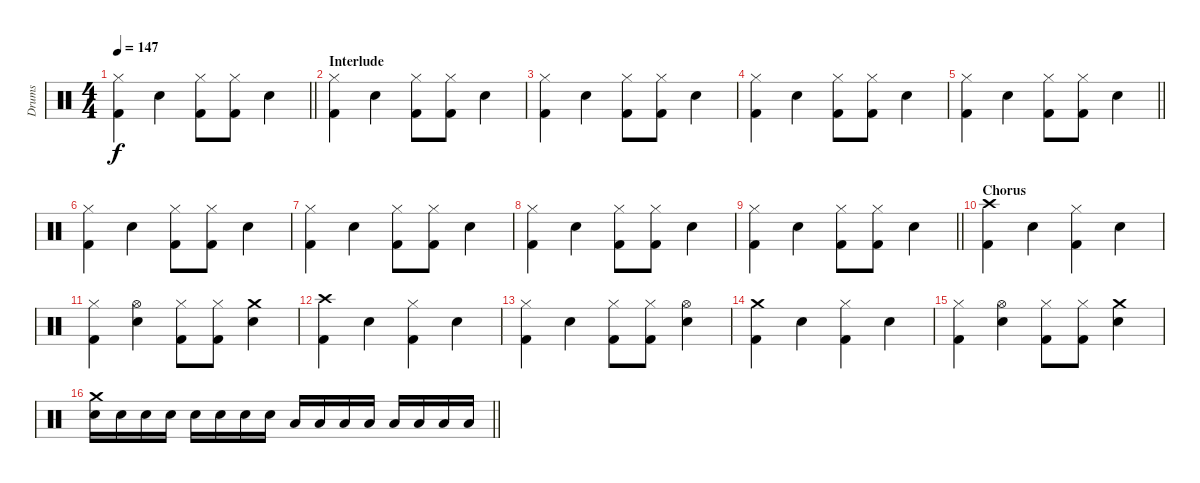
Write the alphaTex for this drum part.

\track ("Drums" "Drums") {instrument percussion}
\staff {score}
\articulation defaults
\ts (4 4)
\tempo 147
\clef neutral
\barLineRight lightlight
\ks c
("Hi-Hat (closed)" "Kick (hit) 2").4{dy f} "Electric Snare (hit)".4 ("Hi-Hat (closed)" "Kick (hit) 2").8 ("Hi-Hat (closed)" "Kick (hit) 2").8 "Electric Snare (hit)".4 |
\section ("" "Interlude")
("Hi-Hat (closed)" "Kick (hit) 2").4 "Electric Snare (hit)".4 ("Hi-Hat (closed)" "Kick (hit) 2").8 ("Hi-Hat (closed)" "Kick (hit) 2").8 "Electric Snare (hit)".4 |
("Hi-Hat (closed)" "Kick (hit) 2").4 "Electric Snare (hit)".4 ("Hi-Hat (closed)" "Kick (hit) 2").8 ("Hi-Hat (closed)" "Kick (hit) 2").8 "Electric Snare (hit)".4 |
("Hi-Hat (closed)" "Kick (hit) 2").4 "Electric Snare (hit)".4 ("Hi-Hat (closed)" "Kick (hit) 2").8 ("Hi-Hat (closed)" "Kick (hit) 2").8 "Electric Snare (hit)".4 |
\barLineRight lightlight
("Hi-Hat (closed)" "Kick (hit) 2").4 "Electric Snare (hit)".4 ("Hi-Hat (closed)" "Kick (hit) 2").8 ("Hi-Hat (closed)" "Kick (hit) 2").8 "Electric Snare (hit)".4 |
("Hi-Hat (closed)" "Kick (hit) 2").4 "Electric Snare (hit)".4 ("Hi-Hat (closed)" "Kick (hit) 2").8 ("Hi-Hat (closed)" "Kick (hit) 2").8 "Electric Snare (hit)".4 |
("Hi-Hat (closed)" "Kick (hit) 2").4 "Electric Snare (hit)".4 ("Hi-Hat (closed)" "Kick (hit) 2").8 ("Hi-Hat (closed)" "Kick (hit) 2").8 "Electric Snare (hit)".4 |
("Hi-Hat (closed)" "Kick (hit) 2").4 "Electric Snare (hit)".4 ("Hi-Hat (closed)" "Kick (hit) 2").8 ("Hi-Hat (closed)" "Kick (hit) 2").8 "Electric Snare (hit)".4 |
\barLineRight lightlight
("Hi-Hat (closed)" "Kick (hit) 2").4 "Electric Snare (hit)".4 ("Hi-Hat (closed)" "Kick (hit) 2").8 ("Hi-Hat (closed)" "Kick (hit) 2").8 "Electric Snare (hit)".4 |
\section ("" "Chorus")
("Crash high (hit)" "Kick (hit) 2").4 "Electric Snare (hit)".4 ("Hi-Hat (closed)" "Kick (hit) 2").4 "Electric Snare (hit)".4 |
("Hi-Hat (closed)" "Kick (hit) 2").4 ("Hi-Hat (open)" "Electric Snare (hit)").4 ("Hi-Hat (closed)" "Kick (hit) 2").8 ("Hi-Hat (closed)" "Kick (hit) 2").8 ("Crash medium (hit)" "Electric Snare (hit)").4 |
("Crash high (hit)" "Kick (hit) 2").4 "Electric Snare (hit)".4 ("Hi-Hat (closed)" "Kick (hit) 2").4 "Electric Snare (hit)".4 |
("Hi-Hat (closed)" "Kick (hit) 2").4 "Electric Snare (hit)".4 ("Hi-Hat (closed)" "Kick (hit) 2").8 ("Hi-Hat (closed)" "Kick (hit) 2").8 ("Hi-Hat (open)" "Electric Snare (hit)").4 |
("Crash medium (hit)" "Kick (hit) 2").4 "Electric Snare (hit)".4 ("Hi-Hat (closed)" "Kick (hit) 2").4 "Electric Snare (hit)".4 |
("Hi-Hat (closed)" "Kick (hit) 2").4 ("Hi-Hat (open)" "Electric Snare (hit)").4 ("Hi-Hat (closed)" "Kick (hit) 2").8 ("Hi-Hat (closed)" "Kick (hit) 2").8 ("Crash medium (hit)" "Electric Snare (hit)").4 |
\barLineRight lightlight
("Crash medium (hit)" "Snare (hit) 2").16 "Snare (hit) 2".16 "Snare (hit) 2".16 "Snare (hit) 2".16 "Snare (hit) 2".16 "Snare (hit) 2".16 "Snare (hit) 2".16 "Snare (hit) 2".16 "Low Floor Tom (hit)".16 "Low Floor Tom (hit)".16 "Low Floor Tom (hit)".16 "Low Floor Tom (hit)".16 "Low Tom (hit)".16 "Low Tom (hit)".16 "Low Tom (hit)".16 "Low Tom (hit)".16
